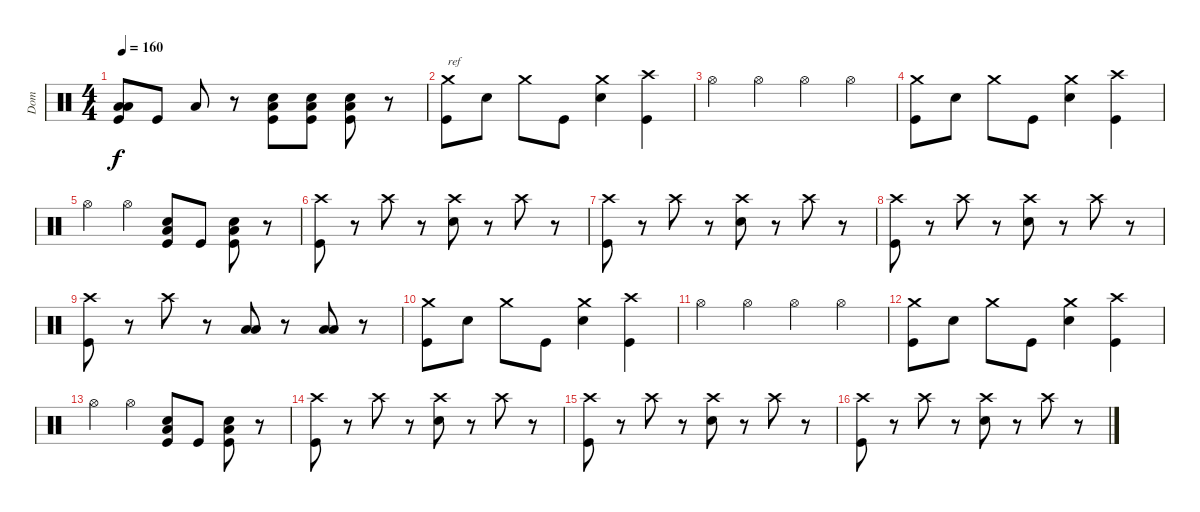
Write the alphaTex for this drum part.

\track ("Dom" "Dom") {instrument percussion}
\staff {score}
\articulation defaults
\ts (4 4)
\tempo 160
\clef neutral
\ks c
("Low Floor Tom (hit)" "Low Tom (hit)" "Kick (hit)").8{dy f} "Kick (hit)".8 "Low Floor Tom (hit)".8 r.8 ("Low Floor Tom (hit)" "Snare (hit) 2" "Kick (hit)").8 ("Low Floor Tom (hit)" "Snare (hit) 2" "Kick (hit)").8 ("Low Floor Tom (hit)" "Snare (hit) 2" "Kick (hit)").8 r.8 |
("Crash medium (hit)" "Kick (hit)").8{txt "ref"} "Snare (hit) 2".8 "Crash medium (hit)".8 "Kick (hit)".8 ("Crash medium (hit)" "Snare (hit) 2").4 ("Crash high (hit)" "Kick (hit)").4 |
"Hi-Hat (open)".4 "Hi-Hat (open)".4 "Hi-Hat (open)".4 "Hi-Hat (open)".4 |
("Crash medium (hit)" "Kick (hit)").8 "Snare (hit) 2".8 "Crash medium (hit)".8 "Kick (hit)".8 ("Crash medium (hit)" "Snare (hit) 2").4 ("Crash high (hit)" "Kick (hit)").4 |
"Hi-Hat (open)".4 "Hi-Hat (open)".4 ("Low Floor Tom (hit)" "Snare (hit) 2" "Kick (hit)").8 "Kick (hit)".8 ("Low Floor Tom (hit)" "Snare (hit) 2" "Kick (hit)").8 r.8 |
("Crash high (hit)" "Kick (hit)").8 r.8 "Crash high (hit)".8 r.8 ("Crash high (hit)" "Snare (hit) 2").8 r.8 "Crash high (hit)".8 r.8 |
("Crash high (hit)" "Kick (hit)").8 r.8 "Crash high (hit)".8 r.8 ("Crash high (hit)" "Snare (hit) 2").8 r.8 "Crash high (hit)".8 r.8 |
("Crash high (hit)" "Kick (hit)").8 r.8 "Crash high (hit)".8 r.8 ("Crash high (hit)" "Snare (hit) 2").8 r.8 "Crash high (hit)".8 r.8 |
("Crash high (hit)" "Kick (hit)").8 r.8 "Crash high (hit)".8 r.8 ("Low Floor Tom (hit)" "Low Tom (hit)").8 r.8 ("Low Floor Tom (hit)" "Low Tom (hit)").8 r.8 |
("Crash medium (hit)" "Kick (hit)").8 "Snare (hit) 2".8 "Crash medium (hit)".8 "Kick (hit)".8 ("Crash medium (hit)" "Snare (hit) 2").4 ("Crash high (hit)" "Kick (hit)").4 |
"Hi-Hat (open)".4 "Hi-Hat (open)".4 "Hi-Hat (open)".4 "Hi-Hat (open)".4 |
("Crash medium (hit)" "Kick (hit)").8 "Snare (hit) 2".8 "Crash medium (hit)".8 "Kick (hit)".8 ("Crash medium (hit)" "Snare (hit) 2").4 ("Crash high (hit)" "Kick (hit)").4 |
"Hi-Hat (open)".4 "Hi-Hat (open)".4 ("Low Floor Tom (hit)" "Snare (hit) 2" "Kick (hit)").8 "Kick (hit)".8 ("Low Floor Tom (hit)" "Snare (hit) 2" "Kick (hit)").8 r.8 |
("Crash high (hit)" "Kick (hit)").8 r.8 "Crash high (hit)".8 r.8 ("Crash high (hit)" "Snare (hit) 2").8 r.8 "Crash high (hit)".8 r.8 |
("Crash high (hit)" "Kick (hit)").8 r.8 "Crash high (hit)".8 r.8 ("Crash high (hit)" "Snare (hit) 2").8 r.8 "Crash high (hit)".8 r.8 |
("Crash high (hit)" "Kick (hit)").8 r.8 "Crash high (hit)".8 r.8 ("Crash high (hit)" "Snare (hit) 2").8 r.8 "Crash high (hit)".8 r.8
